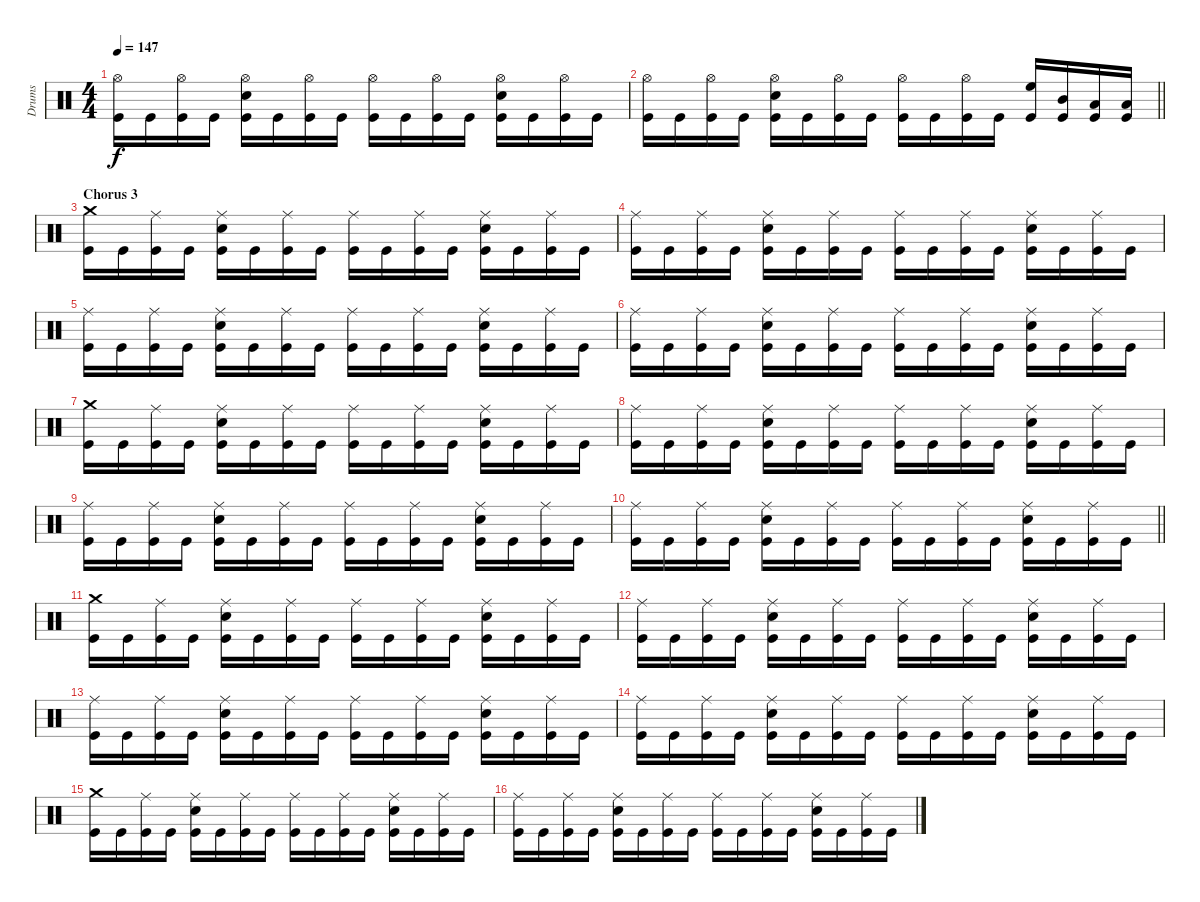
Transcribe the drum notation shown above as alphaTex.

\track ("Drums" "Drums") {instrument percussion}
\staff {score}
\articulation defaults
\ts (4 4)
\tempo 147
\clef neutral
\ks c
("Hi-Hat (open)" "Kick (hit)").16{dy f} "Kick (hit)".16 ("Hi-Hat (open)" "Kick (hit)").16 "Kick (hit)".16 ("Electric Snare (hit)" "Hi-Hat (open)" "Kick (hit)").16 "Kick (hit)".16 ("Hi-Hat (open)" "Kick (hit)").16 "Kick (hit)".16 ("Hi-Hat (open)" "Kick (hit)").16 "Kick (hit)".16 ("Hi-Hat (open)" "Kick (hit)").16 "Kick (hit)".16 ("Electric Snare (hit)" "Hi-Hat (open)" "Kick (hit)").16 "Kick (hit)".16 ("Hi-Hat (open)" "Kick (hit)").16 "Kick (hit)".16 |
\barLineRight lightlight
("Hi-Hat (open)" "Kick (hit)").16 "Kick (hit)".16 ("Hi-Hat (open)" "Kick (hit)").16 "Kick (hit)".16 ("Electric Snare (hit)" "Hi-Hat (open)" "Kick (hit)").16 "Kick (hit)".16 ("Hi-Hat (open)" "Kick (hit)").16 "Kick (hit)".16 ("Hi-Hat (open)" "Kick (hit)").16 "Kick (hit)".16 ("Hi-Hat (open)" "Kick (hit)").16 "Kick (hit)".16 ("High Floor Tom (hit)" "Kick (hit)").16 ("Mid Tom (hit)" "Kick (hit)").16 ("Low Tom (hit)" "Kick (hit)").16 ("Low Floor Tom (hit)" "Kick (hit)").16 |
\section ("" "Chorus 3")
("Crash medium (hit)" "Kick (hit)").16 "Kick (hit)".16 ("Ride (middle)" "Kick (hit)").16 "Kick (hit)".16 ("Electric Snare (hit)" "Ride (middle)" "Kick (hit)").16 "Kick (hit)".16 ("Ride (middle)" "Kick (hit)").16 "Kick (hit)".16 ("Ride (middle)" "Kick (hit)").16 "Kick (hit)".16 ("Ride (middle)" "Kick (hit)").16 "Kick (hit)".16 ("Electric Snare (hit)" "Ride (middle)" "Kick (hit)").16 "Kick (hit)".16 ("Ride (middle)" "Kick (hit)").16 "Kick (hit)".16 |
("Ride (middle)" "Kick (hit)").16 "Kick (hit)".16 ("Ride (middle)" "Kick (hit)").16 "Kick (hit)".16 ("Electric Snare (hit)" "Ride (middle)" "Kick (hit)").16 "Kick (hit)".16 ("Ride (middle)" "Kick (hit)").16 "Kick (hit)".16 ("Ride (middle)" "Kick (hit)").16 "Kick (hit)".16 ("Ride (middle)" "Kick (hit)").16 "Kick (hit)".16 ("Electric Snare (hit)" "Ride (middle)" "Kick (hit)").16 "Kick (hit)".16 ("Ride (middle)" "Kick (hit)").16 "Kick (hit)".16 |
("Ride (middle)" "Kick (hit)").16 "Kick (hit)".16 ("Ride (middle)" "Kick (hit)").16 "Kick (hit)".16 ("Electric Snare (hit)" "Ride (middle)" "Kick (hit)").16 "Kick (hit)".16 ("Ride (middle)" "Kick (hit)").16 "Kick (hit)".16 ("Ride (middle)" "Kick (hit)").16 "Kick (hit)".16 ("Ride (middle)" "Kick (hit)").16 "Kick (hit)".16 ("Electric Snare (hit)" "Ride (middle)" "Kick (hit)").16 "Kick (hit)".16 ("Ride (middle)" "Kick (hit)").16 "Kick (hit)".16 |
("Ride (middle)" "Kick (hit)").16 "Kick (hit)".16 ("Ride (middle)" "Kick (hit)").16 "Kick (hit)".16 ("Electric Snare (hit)" "Ride (middle)" "Kick (hit)").16 "Kick (hit)".16 ("Ride (middle)" "Kick (hit)").16 "Kick (hit)".16 ("Ride (middle)" "Kick (hit)").16 "Kick (hit)".16 ("Ride (middle)" "Kick (hit)").16 "Kick (hit)".16 ("Electric Snare (hit)" "Ride (middle)" "Kick (hit)").16 "Kick (hit)".16 ("Ride (middle)" "Kick (hit)").16 "Kick (hit)".16 |
("Crash medium (hit)" "Kick (hit)").16 "Kick (hit)".16 ("Ride (middle)" "Kick (hit)").16 "Kick (hit)".16 ("Electric Snare (hit)" "Ride (middle)" "Kick (hit)").16 "Kick (hit)".16 ("Ride (middle)" "Kick (hit)").16 "Kick (hit)".16 ("Ride (middle)" "Kick (hit)").16 "Kick (hit)".16 ("Ride (middle)" "Kick (hit)").16 "Kick (hit)".16 ("Electric Snare (hit)" "Ride (middle)" "Kick (hit)").16 "Kick (hit)".16 ("Ride (middle)" "Kick (hit)").16 "Kick (hit)".16 |
("Ride (middle)" "Kick (hit)").16 "Kick (hit)".16 ("Ride (middle)" "Kick (hit)").16 "Kick (hit)".16 ("Electric Snare (hit)" "Ride (middle)" "Kick (hit)").16 "Kick (hit)".16 ("Ride (middle)" "Kick (hit)").16 "Kick (hit)".16 ("Ride (middle)" "Kick (hit)").16 "Kick (hit)".16 ("Ride (middle)" "Kick (hit)").16 "Kick (hit)".16 ("Electric Snare (hit)" "Ride (middle)" "Kick (hit)").16 "Kick (hit)".16 ("Ride (middle)" "Kick (hit)").16 "Kick (hit)".16 |
("Ride (middle)" "Kick (hit)").16 "Kick (hit)".16 ("Ride (middle)" "Kick (hit)").16 "Kick (hit)".16 ("Electric Snare (hit)" "Ride (middle)" "Kick (hit)").16 "Kick (hit)".16 ("Ride (middle)" "Kick (hit)").16 "Kick (hit)".16 ("Ride (middle)" "Kick (hit)").16 "Kick (hit)".16 ("Ride (middle)" "Kick (hit)").16 "Kick (hit)".16 ("Electric Snare (hit)" "Ride (middle)" "Kick (hit)").16 "Kick (hit)".16 ("Ride (middle)" "Kick (hit)").16 "Kick (hit)".16 |
\barLineRight lightlight
("Ride (middle)" "Kick (hit)").16 "Kick (hit)".16 ("Ride (middle)" "Kick (hit)").16 "Kick (hit)".16 ("Electric Snare (hit)" "Ride (middle)" "Kick (hit)").16 "Kick (hit)".16 ("Ride (middle)" "Kick (hit)").16 "Kick (hit)".16 ("Ride (middle)" "Kick (hit)").16 "Kick (hit)".16 ("Ride (middle)" "Kick (hit)").16 "Kick (hit)".16 ("Electric Snare (hit)" "Ride (middle)" "Kick (hit)").16 "Kick (hit)".16 ("Ride (middle)" "Kick (hit)").16 "Kick (hit)".16 |
("Crash medium (hit)" "Kick (hit)").16 "Kick (hit)".16 ("Ride (middle)" "Kick (hit)").16 "Kick (hit)".16 ("Electric Snare (hit)" "Ride (middle)" "Kick (hit)").16 "Kick (hit)".16 ("Ride (middle)" "Kick (hit)").16 "Kick (hit)".16 ("Ride (middle)" "Kick (hit)").16 "Kick (hit)".16 ("Ride (middle)" "Kick (hit)").16 "Kick (hit)".16 ("Electric Snare (hit)" "Ride (middle)" "Kick (hit)").16 "Kick (hit)".16 ("Ride (middle)" "Kick (hit)").16 "Kick (hit)".16 |
("Ride (middle)" "Kick (hit)").16 "Kick (hit)".16 ("Ride (middle)" "Kick (hit)").16 "Kick (hit)".16 ("Electric Snare (hit)" "Ride (middle)" "Kick (hit)").16 "Kick (hit)".16 ("Ride (middle)" "Kick (hit)").16 "Kick (hit)".16 ("Ride (middle)" "Kick (hit)").16 "Kick (hit)".16 ("Ride (middle)" "Kick (hit)").16 "Kick (hit)".16 ("Electric Snare (hit)" "Ride (middle)" "Kick (hit)").16 "Kick (hit)".16 ("Ride (middle)" "Kick (hit)").16 "Kick (hit)".16 |
("Ride (middle)" "Kick (hit)").16 "Kick (hit)".16 ("Ride (middle)" "Kick (hit)").16 "Kick (hit)".16 ("Electric Snare (hit)" "Ride (middle)" "Kick (hit)").16 "Kick (hit)".16 ("Ride (middle)" "Kick (hit)").16 "Kick (hit)".16 ("Ride (middle)" "Kick (hit)").16 "Kick (hit)".16 ("Ride (middle)" "Kick (hit)").16 "Kick (hit)".16 ("Electric Snare (hit)" "Ride (middle)" "Kick (hit)").16 "Kick (hit)".16 ("Ride (middle)" "Kick (hit)").16 "Kick (hit)".16 |
("Ride (middle)" "Kick (hit)").16 "Kick (hit)".16 ("Ride (middle)" "Kick (hit)").16 "Kick (hit)".16 ("Electric Snare (hit)" "Ride (middle)" "Kick (hit)").16 "Kick (hit)".16 ("Ride (middle)" "Kick (hit)").16 "Kick (hit)".16 ("Ride (middle)" "Kick (hit)").16 "Kick (hit)".16 ("Ride (middle)" "Kick (hit)").16 "Kick (hit)".16 ("Electric Snare (hit)" "Ride (middle)" "Kick (hit)").16 "Kick (hit)".16 ("Ride (middle)" "Kick (hit)").16 "Kick (hit)".16 |
("Crash medium (hit)" "Kick (hit)").16 "Kick (hit)".16 ("Ride (middle)" "Kick (hit)").16 "Kick (hit)".16 ("Electric Snare (hit)" "Ride (middle)" "Kick (hit)").16 "Kick (hit)".16 ("Ride (middle)" "Kick (hit)").16 "Kick (hit)".16 ("Ride (middle)" "Kick (hit)").16 "Kick (hit)".16 ("Ride (middle)" "Kick (hit)").16 "Kick (hit)".16 ("Electric Snare (hit)" "Ride (middle)" "Kick (hit)").16 "Kick (hit)".16 ("Ride (middle)" "Kick (hit)").16 "Kick (hit)".16 |
("Ride (middle)" "Kick (hit)").16 "Kick (hit)".16 ("Ride (middle)" "Kick (hit)").16 "Kick (hit)".16 ("Electric Snare (hit)" "Ride (middle)" "Kick (hit)").16 "Kick (hit)".16 ("Ride (middle)" "Kick (hit)").16 "Kick (hit)".16 ("Ride (middle)" "Kick (hit)").16 "Kick (hit)".16 ("Ride (middle)" "Kick (hit)").16 "Kick (hit)".16 ("Electric Snare (hit)" "Ride (middle)" "Kick (hit)").16 "Kick (hit)".16 ("Ride (middle)" "Kick (hit)").16 "Kick (hit)".16
